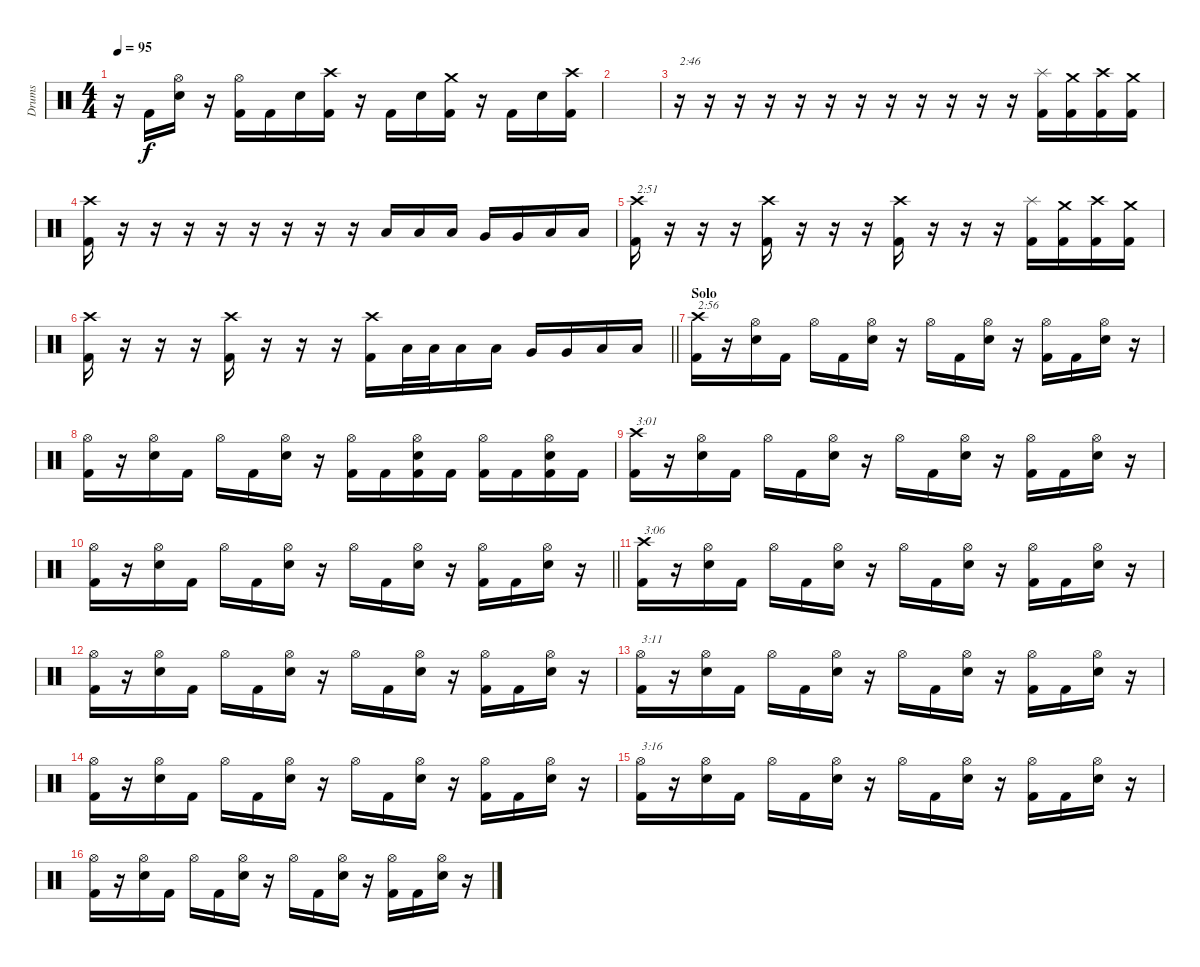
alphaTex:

\track ("Drums" "Drums") {instrument percussion}
\staff {score}
\articulation defaults
\ts (4 4)
\tempo 95
\clef neutral
\ks c
r.16{dy f} "Kick (hit) 2".16 ("Hi-Hat (open)" "Electric Snare (hit)").16 r.16 ("Hi-Hat (open)" "Kick (hit) 2").16 "Kick (hit) 2".16 "Electric Snare (hit)".16 ("Crash high (hit)" "Kick (hit) 2").16 r.16 "Kick (hit) 2".16 "Electric Snare (hit)".16 ("Crash medium (hit)" "Kick (hit) 2").16 r.16 "Kick (hit) 2".16 "Electric Snare (hit)".16 ("Crash high (hit)" "Kick (hit) 2").16 |
|
r.16{txt "2:46"} r.16 r.16 r.16 r.16 r.16 r.16 r.16 r.16 r.16 r.16 r.16 ("Splash (hit)" "Kick (hit) 2").16 ("Crash medium (hit)" "Kick (hit) 2").16 ("Crash high (hit)" "Kick (hit) 2").16 ("Crash medium (hit)" "Kick (hit) 2").16 |
("Crash high (hit)" "Kick (hit) 2").16 r.16 r.16 r.16 r.16 r.16 r.16 r.16 r.16 "Low Tom (hit)".16 "Low Tom (hit)".16 "Low Tom (hit)".16 "Very Low Tom (hit)".16 "Very Low Tom (hit)".16 "Low Floor Tom (hit)".16 "Low Floor Tom (hit)".16 |
("Crash high (hit)" "Kick (hit) 2").16{txt "2:51"} r.16 r.16{volume 0} r.16 ("Crash high (hit)" "Kick (hit) 2").16{volume 13} r.16 r.16{volume 0} r.16 ("Crash high (hit)" "Kick (hit) 2").16{volume 13} r.16 r.16{volume 0} r.16 ("Splash (hit)" "Kick (hit) 2").16{volume 13} ("Crash medium (hit)" "Kick (hit) 2").16 ("Crash high (hit)" "Kick (hit) 2").16 ("Crash medium (hit)" "Kick (hit) 2").16 |
\barLineRight lightlight
("Crash high (hit)" "Kick (hit) 2").16 r.16 r.16{volume 0} r.16 ("Crash high (hit)" "Kick (hit) 2").16{volume 13} r.16 r.16{volume 0} r.16 ("Crash high (hit)" "Kick (hit) 2").16{volume 13} "Low Tom (hit)".32 "Low Tom (hit)".32 "Low Tom (hit)".16 "Low Tom (hit)".16 "Very Low Tom (hit)".16 "Very Low Tom (hit)".16 "Low Floor Tom (hit)".16 "Low Floor Tom (hit)".16 |
\section ("" "Solo")
("Crash high (hit)" "Kick (hit) 2").16{txt "2:56"} r.16 ("Hi-Hat (open)" "Electric Snare (hit)").16 "Kick (hit) 2".16 "Hi-Hat (open)".16 "Kick (hit) 2".16 ("Hi-Hat (open)" "Electric Snare (hit)").16 r.16 "Hi-Hat (open)".16 "Kick (hit) 2".16 ("Hi-Hat (open)" "Electric Snare (hit)").16 r.16 ("Hi-Hat (open)" "Kick (hit) 2").16 "Kick (hit) 2".16 ("Hi-Hat (open)" "Electric Snare (hit)").16 r.16 |
("Hi-Hat (open)" "Kick (hit) 2").16 r.16 ("Hi-Hat (open)" "Electric Snare (hit)").16 "Kick (hit) 2".16 "Hi-Hat (open)".16 "Kick (hit) 2".16 ("Hi-Hat (open)" "Electric Snare (hit)").16 r.16 ("Hi-Hat (open)" "Kick (hit) 2").16 "Kick (hit) 2".16 ("Hi-Hat (open)" "Electric Snare (hit)" "Kick (hit) 2").16 "Kick (hit) 2".16 ("Hi-Hat (open)" "Kick (hit) 2").16 "Kick (hit) 2".16 ("Hi-Hat (open)" "Electric Snare (hit)" "Kick (hit) 2").16 "Kick (hit) 2".16 |
("Crash high (hit)" "Kick (hit) 2").16{txt "3:01"} r.16 ("Hi-Hat (open)" "Electric Snare (hit)").16 "Kick (hit) 2".16 "Hi-Hat (open)".16 "Kick (hit) 2".16 ("Hi-Hat (open)" "Electric Snare (hit)").16 r.16 "Hi-Hat (open)".16 "Kick (hit) 2".16 ("Hi-Hat (open)" "Electric Snare (hit)").16 r.16 ("Hi-Hat (open)" "Kick (hit) 2").16 "Kick (hit) 2".16 ("Hi-Hat (open)" "Electric Snare (hit)").16 r.16 |
\barLineRight lightlight
("Hi-Hat (open)" "Kick (hit) 2").16 r.16 ("Hi-Hat (open)" "Electric Snare (hit)").16 "Kick (hit) 2".16 "Hi-Hat (open)".16 "Kick (hit) 2".16 ("Hi-Hat (open)" "Electric Snare (hit)").16 r.16 "Hi-Hat (open)".16 "Kick (hit) 2".16 ("Hi-Hat (open)" "Electric Snare (hit)").16 r.16 ("Hi-Hat (open)" "Kick (hit) 2").16 "Kick (hit) 2".16 ("Hi-Hat (open)" "Electric Snare (hit)").16 r.16 |
("Crash high (hit)" "Kick (hit) 2").16{txt "3:06"} r.16 ("Hi-Hat (open)" "Electric Snare (hit)").16 "Kick (hit) 2".16 "Hi-Hat (open)".16 "Kick (hit) 2".16 ("Hi-Hat (open)" "Electric Snare (hit)").16 r.16 "Hi-Hat (open)".16 "Kick (hit) 2".16 ("Hi-Hat (open)" "Electric Snare (hit)").16 r.16 ("Hi-Hat (open)" "Kick (hit) 2").16 "Kick (hit) 2".16 ("Hi-Hat (open)" "Electric Snare (hit)").16 r.16 |
("Hi-Hat (open)" "Kick (hit) 2").16 r.16 ("Hi-Hat (open)" "Electric Snare (hit)").16 "Kick (hit) 2".16 "Hi-Hat (open)".16 "Kick (hit) 2".16 ("Hi-Hat (open)" "Electric Snare (hit)").16 r.16 "Hi-Hat (open)".16 "Kick (hit) 2".16 ("Hi-Hat (open)" "Electric Snare (hit)").16 r.16 ("Hi-Hat (open)" "Kick (hit) 2").16 "Kick (hit) 2".16 ("Hi-Hat (open)" "Electric Snare (hit)").16 r.16 |
("Hi-Hat (open)" "Kick (hit) 2").16{txt "3:11"} r.16 ("Hi-Hat (open)" "Electric Snare (hit)").16 "Kick (hit) 2".16 "Hi-Hat (open)".16 "Kick (hit) 2".16 ("Hi-Hat (open)" "Electric Snare (hit)").16 r.16 "Hi-Hat (open)".16 "Kick (hit) 2".16 ("Hi-Hat (open)" "Electric Snare (hit)").16 r.16 ("Hi-Hat (open)" "Kick (hit) 2").16 "Kick (hit) 2".16 ("Hi-Hat (open)" "Electric Snare (hit)").16 r.16 |
("Hi-Hat (open)" "Kick (hit) 2").16 r.16 ("Hi-Hat (open)" "Electric Snare (hit)").16 "Kick (hit) 2".16 "Hi-Hat (open)".16 "Kick (hit) 2".16 ("Hi-Hat (open)" "Electric Snare (hit)").16 r.16 "Hi-Hat (open)".16 "Kick (hit) 2".16 ("Hi-Hat (open)" "Electric Snare (hit)").16 r.16 ("Hi-Hat (open)" "Kick (hit) 2").16 "Kick (hit) 2".16 ("Hi-Hat (open)" "Electric Snare (hit)").16 r.16 |
("Hi-Hat (open)" "Kick (hit) 2").16{txt "3:16"} r.16 ("Hi-Hat (open)" "Electric Snare (hit)").16 "Kick (hit) 2".16 "Hi-Hat (open)".16 "Kick (hit) 2".16 ("Hi-Hat (open)" "Electric Snare (hit)").16 r.16 "Hi-Hat (open)".16 "Kick (hit) 2".16 ("Hi-Hat (open)" "Electric Snare (hit)").16 r.16 ("Hi-Hat (open)" "Kick (hit) 2").16 "Kick (hit) 2".16 ("Hi-Hat (open)" "Electric Snare (hit)").16 r.16 |
("Hi-Hat (open)" "Kick (hit) 2").16 r.16 ("Hi-Hat (open)" "Electric Snare (hit)").16 "Kick (hit) 2".16 "Hi-Hat (open)".16 "Kick (hit) 2".16 ("Hi-Hat (open)" "Electric Snare (hit)").16 r.16 "Hi-Hat (open)".16 "Kick (hit) 2".16 ("Hi-Hat (open)" "Electric Snare (hit)").16 r.16 ("Hi-Hat (open)" "Kick (hit) 2").16 "Kick (hit) 2".16 ("Hi-Hat (open)" "Electric Snare (hit)").16 r.16
